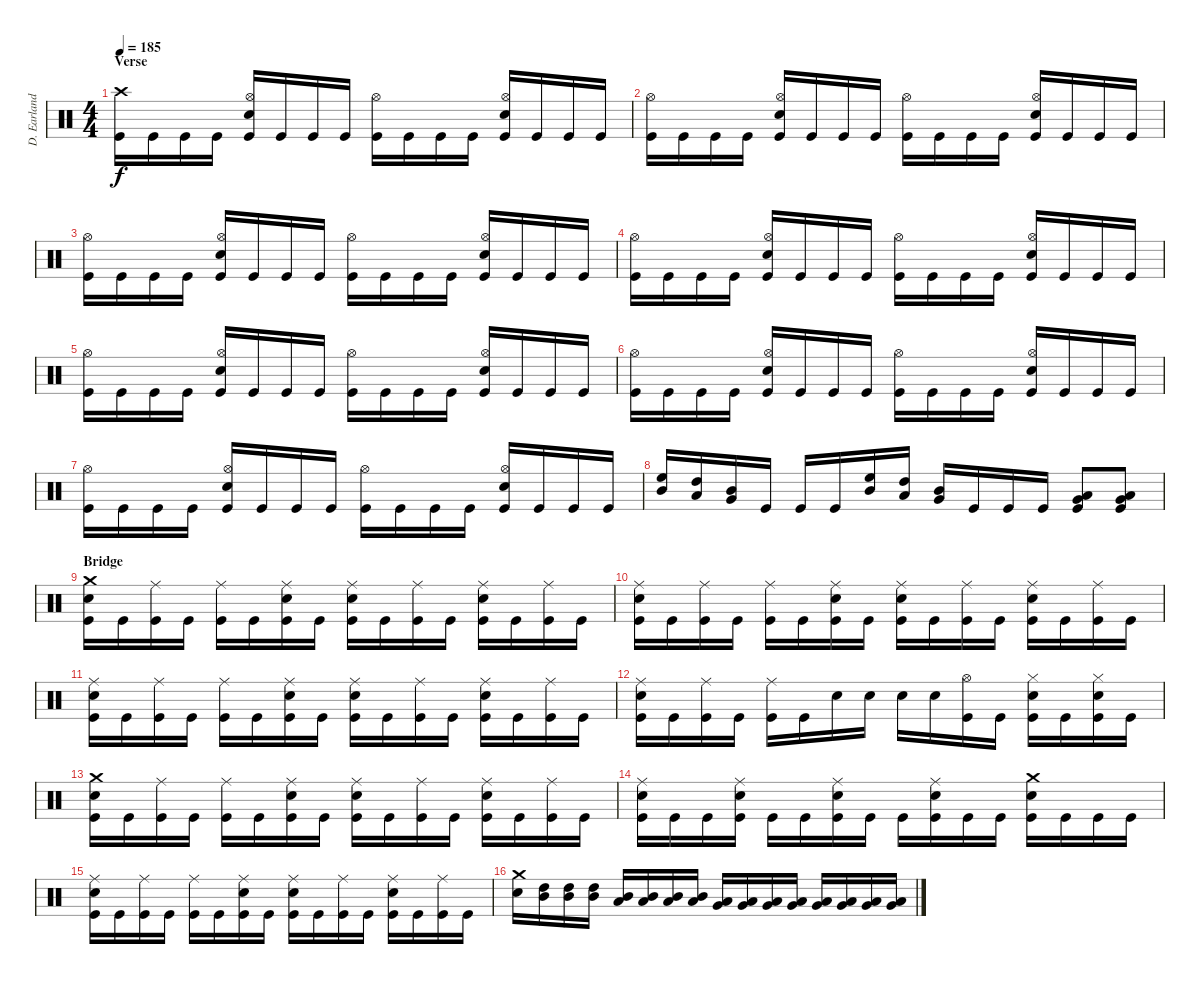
\track ("D. Earlanddson" "D. Earland") {instrument percussion}
\staff {score}
\articulation defaults
\ts (4 4)
\section ("" "Verse")
\tempo 185
\clef neutral
\ks c
("Crash high (hit)" "Kick (hit)").16{dy f} "Kick (hit)".16 "Kick (hit)".16 "Kick (hit)".16 ("Hi-Hat (open)" "Electric Snare (hit)" "Kick (hit)").16 "Kick (hit)".16 "Kick (hit)".16 "Kick (hit)".16 ("Hi-Hat (open)" "Kick (hit)").16 "Kick (hit)".16 "Kick (hit)".16 "Kick (hit)".16 ("Hi-Hat (open)" "Electric Snare (hit)" "Kick (hit)").16 "Kick (hit)".16 "Kick (hit)".16 "Kick (hit)".16 |
("Hi-Hat (open)" "Kick (hit)").16 "Kick (hit)".16 "Kick (hit)".16 "Kick (hit)".16 ("Hi-Hat (open)" "Electric Snare (hit)" "Kick (hit)").16 "Kick (hit)".16 "Kick (hit)".16 "Kick (hit)".16 ("Hi-Hat (open)" "Kick (hit)").16 "Kick (hit)".16 "Kick (hit)".16 "Kick (hit)".16 ("Hi-Hat (open)" "Electric Snare (hit)" "Kick (hit)").16 "Kick (hit)".16 "Kick (hit)".16 "Kick (hit)".16 |
("Hi-Hat (open)" "Kick (hit)").16 "Kick (hit)".16 "Kick (hit)".16 "Kick (hit)".16 ("Hi-Hat (open)" "Electric Snare (hit)" "Kick (hit)").16 "Kick (hit)".16 "Kick (hit)".16 "Kick (hit)".16 ("Hi-Hat (open)" "Kick (hit)").16 "Kick (hit)".16 "Kick (hit)".16 "Kick (hit)".16 ("Hi-Hat (open)" "Electric Snare (hit)" "Kick (hit)").16 "Kick (hit)".16 "Kick (hit)".16 "Kick (hit)".16 |
("Hi-Hat (open)" "Kick (hit)").16 "Kick (hit)".16 "Kick (hit)".16 "Kick (hit)".16 ("Hi-Hat (open)" "Electric Snare (hit)" "Kick (hit)").16 "Kick (hit)".16 "Kick (hit)".16 "Kick (hit)".16 ("Hi-Hat (open)" "Kick (hit)").16 "Kick (hit)".16 "Kick (hit)".16 "Kick (hit)".16 ("Hi-Hat (open)" "Electric Snare (hit)" "Kick (hit)").16 "Kick (hit)".16 "Kick (hit)".16 "Kick (hit)".16 |
("Hi-Hat (open)" "Kick (hit)").16 "Kick (hit)".16 "Kick (hit)".16 "Kick (hit)".16 ("Hi-Hat (open)" "Electric Snare (hit)" "Kick (hit)").16 "Kick (hit)".16 "Kick (hit)".16 "Kick (hit)".16 ("Hi-Hat (open)" "Kick (hit)").16 "Kick (hit)".16 "Kick (hit)".16 "Kick (hit)".16 ("Hi-Hat (open)" "Electric Snare (hit)" "Kick (hit)").16 "Kick (hit)".16 "Kick (hit)".16 "Kick (hit)".16 |
("Hi-Hat (open)" "Kick (hit)").16 "Kick (hit)".16 "Kick (hit)".16 "Kick (hit)".16 ("Hi-Hat (open)" "Electric Snare (hit)" "Kick (hit)").16 "Kick (hit)".16 "Kick (hit)".16 "Kick (hit)".16 ("Hi-Hat (open)" "Kick (hit)").16 "Kick (hit)".16 "Kick (hit)".16 "Kick (hit)".16 ("Hi-Hat (open)" "Electric Snare (hit)" "Kick (hit)").16 "Kick (hit)".16 "Kick (hit)".16 "Kick (hit)".16 |
("Hi-Hat (open)" "Kick (hit)").16 "Kick (hit)".16 "Kick (hit)".16 "Kick (hit)".16 ("Hi-Hat (open)" "Electric Snare (hit)" "Kick (hit)").16 "Kick (hit)".16 "Kick (hit)".16 "Kick (hit)".16 ("Hi-Hat (open)" "Kick (hit)").16 "Kick (hit)".16 "Kick (hit)".16 "Kick (hit)".16 ("Hi-Hat (open)" "Electric Snare (hit)" "Kick (hit)").16 "Kick (hit)".16 "Kick (hit)".16 "Kick (hit)".16 |
("High Floor Tom (hit)" "Mid Tom (hit)").16 ("High Tom (hit)" "Low Tom (hit)").16 ("Mid Tom (hit)" "Very Low Tom (hit)").16 "Kick (hit)".16 "Kick (hit)".16 "Kick (hit)".16 ("High Floor Tom (hit)" "Mid Tom (hit)").16 ("High Tom (hit)" "Low Tom (hit)").16 ("Mid Tom (hit)" "Very Low Tom (hit)").16 "Kick (hit)".16 "Kick (hit)".16 "Kick (hit)".16 ("Very Low Tom (hit)" "Low Floor Tom (hit)" "Kick (hit)").8 ("Very Low Tom (hit)" "Low Floor Tom (hit)" "Kick (hit)").8 |
\section ("" "Bridge")
("Crash medium (hit)" "Electric Snare (hit)" "Kick (hit)").16 "Kick (hit)".16 ("Ride (middle)" "Kick (hit)").16 "Kick (hit)".16 ("Ride (middle)" "Kick (hit)").16 "Kick (hit)".16 ("Ride (middle)" "Electric Snare (hit)" "Kick (hit)").16 "Kick (hit)".16 ("Ride (middle)" "Electric Snare (hit)" "Kick (hit)").16 "Kick (hit)".16 ("Ride (middle)" "Kick (hit)").16 "Kick (hit)".16 ("Ride (middle)" "Electric Snare (hit)" "Kick (hit)").16 "Kick (hit)".16 ("Ride (middle)" "Kick (hit)").16 "Kick (hit)".16 |
("Ride (middle)" "Electric Snare (hit)" "Kick (hit)").16 "Kick (hit)".16 ("Ride (middle)" "Kick (hit)").16 "Kick (hit)".16 ("Ride (middle)" "Kick (hit)").16 "Kick (hit)".16 ("Ride (middle)" "Electric Snare (hit)" "Kick (hit)").16 "Kick (hit)".16 ("Ride (middle)" "Electric Snare (hit)" "Kick (hit)").16 "Kick (hit)".16 ("Ride (middle)" "Kick (hit)").16 "Kick (hit)".16 ("Ride (middle)" "Electric Snare (hit)" "Kick (hit)").16 "Kick (hit)".16 ("Ride (middle)" "Kick (hit)").16 "Kick (hit)".16 |
("Ride (middle)" "Electric Snare (hit)" "Kick (hit)").16 "Kick (hit)".16 ("Ride (middle)" "Kick (hit)").16 "Kick (hit)".16 ("Ride (middle)" "Kick (hit)").16 "Kick (hit)".16 ("Ride (middle)" "Electric Snare (hit)" "Kick (hit)").16 "Kick (hit)".16 ("Ride (middle)" "Electric Snare (hit)" "Kick (hit)").16 "Kick (hit)".16 ("Ride (middle)" "Kick (hit)").16 "Kick (hit)".16 ("Ride (middle)" "Electric Snare (hit)" "Kick (hit)").16 "Kick (hit)".16 ("Ride (middle)" "Kick (hit)").16 "Kick (hit)".16 |
("Ride (middle)" "Electric Snare (hit)" "Kick (hit)").16 "Kick (hit)".16 ("Ride (middle)" "Kick (hit)").16 "Kick (hit)".16 ("Ride (middle)" "Kick (hit)").16 "Kick (hit)".16 "Electric Snare (hit)".16 "Electric Snare (hit)".16 "Electric Snare (hit)".16 "Electric Snare (hit)".16 ("Hi-Hat (open)" "Kick (hit)").16 "Kick (hit)".16 ("Hi-Hat (closed)" "Electric Snare (hit)" "Kick (hit)").16 "Kick (hit)".16 ("Hi-Hat (closed)" "Electric Snare (hit)" "Kick (hit)").16 "Kick (hit)".16 |
("Crash medium (hit)" "Electric Snare (hit)" "Kick (hit)").16 "Kick (hit)".16 ("Ride (middle)" "Kick (hit)").16 "Kick (hit)".16 ("Ride (middle)" "Kick (hit)").16 "Kick (hit)".16 ("Ride (middle)" "Electric Snare (hit)" "Kick (hit)").16 "Kick (hit)".16 ("Ride (middle)" "Electric Snare (hit)" "Kick (hit)").16 "Kick (hit)".16 ("Ride (middle)" "Kick (hit)").16 "Kick (hit)".16 ("Ride (middle)" "Electric Snare (hit)" "Kick (hit)").16 "Kick (hit)".16 ("Ride (middle)" "Kick (hit)").16 "Kick (hit)".16 |
("Ride (middle)" "Electric Snare (hit)" "Kick (hit)").16 "Kick (hit)".16 "Kick (hit)".16 ("Ride (middle)" "Electric Snare (hit)" "Kick (hit)").16 "Kick (hit)".16 "Kick (hit)".16 ("Ride (middle)" "Electric Snare (hit)" "Kick (hit)").16 "Kick (hit)".16 "Kick (hit)".16 ("Ride (middle)" "Electric Snare (hit)" "Kick (hit)").16 "Kick (hit)".16 "Kick (hit)".16 ("Crash medium (hit)" "Electric Snare (hit)" "Kick (hit)").16 "Kick (hit)".16 "Kick (hit)".16 "Kick (hit)".16 |
("Ride (middle)" "Electric Snare (hit)" "Kick (hit)").16 "Kick (hit)".16 ("Ride (middle)" "Kick (hit)").16 "Kick (hit)".16 ("Ride (middle)" "Kick (hit)").16 "Kick (hit)".16 ("Ride (middle)" "Electric Snare (hit)" "Kick (hit)").16 "Kick (hit)".16 ("Ride (middle)" "Electric Snare (hit)" "Kick (hit)").16 "Kick (hit)".16 ("Ride (middle)" "Kick (hit)").16 "Kick (hit)".16 ("Ride (middle)" "Electric Snare (hit)" "Kick (hit)").16 "Kick (hit)".16 ("Ride (middle)" "Kick (hit)").16 "Kick (hit)".16 |
("Crash medium (hit)" "Electric Snare (hit)").16 ("High Tom (hit)" "Mid Tom (hit)").16 ("High Tom (hit)" "Mid Tom (hit)").16 ("High Tom (hit)" "Mid Tom (hit)").16 ("Mid Tom (hit)" "Low Tom (hit)").16 ("Mid Tom (hit)" "Low Tom (hit)").16 ("Mid Tom (hit)" "Low Tom (hit)").16 ("Mid Tom (hit)" "Low Tom (hit)").16 ("Low Tom (hit)" "Very Low Tom (hit)").16 ("Low Tom (hit)" "Very Low Tom (hit)").16 ("Low Tom (hit)" "Very Low Tom (hit)").16 ("Low Tom (hit)" "Very Low Tom (hit)").16 ("Very Low Tom (hit)" "Low Floor Tom (hit)").16 ("Very Low Tom (hit)" "Low Floor Tom (hit)").16 ("Very Low Tom (hit)" "Low Floor Tom (hit)").16 ("Very Low Tom (hit)" "Low Floor Tom (hit)").16
